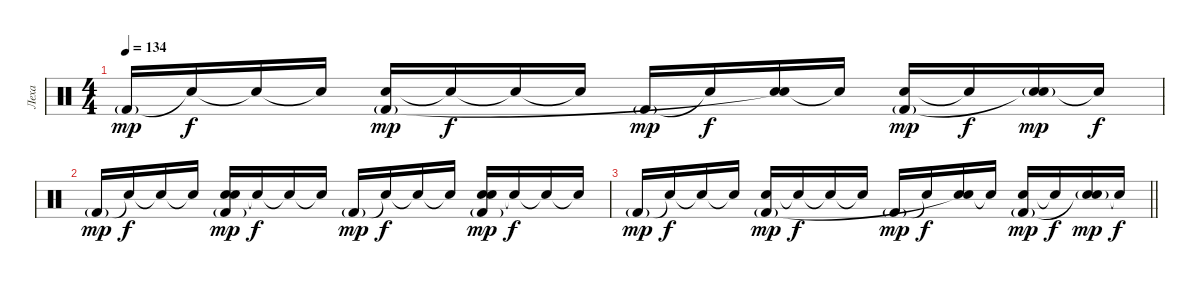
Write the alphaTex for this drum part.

\track ("Леха" "Леха") {instrument percussion}
\staff {score}
\articulation defaults
\ts (4 4)
\tempo 134
\clef neutral
\ks c "Kick (hit) 2"{g}.16{dy mp} "Snare (hit)"{t}.16{dy f} "Snare (hit)"{t}.16 "Snare (hit)"{t}.16
("Hand Clap (hit)" "Kick (hit) 2"{g}).16{dy mp} "Snare (hit)"{t}.16{dy f} "Snare (hit)"{t}.16 "Snare (hit)"{t}.16 "Kick (hit) 2"{g}.16{dy mp} "Snare (hit)"{t}.16{dy f} ("Hand Clap (hit)" "Snare (hit)"{t}).16 "Snare (hit)"{t}.16 ("Hand Clap (hit)" "Kick (hit) 2"{g}).16{dy mp} "Snare (hit)"{t}.16{dy f} ("Hand Clap (hit)"{g} "Snare (hit)"{t}).16{dy mp} "Snare (hit)"{t}.16{dy f} |
"Kick (hit) 2"{g}.16{dy mp} "Snare (hit)"{t}.16{dy f} "Snare (hit)"{t}.16 "Snare (hit)"{t}.16 ("Hand Clap (hit)" "Hand Clap (hit)" "Kick (hit) 2"{g}).16{dy mp} "Snare (hit)"{t}.16{dy f} "Snare (hit)"{t}.16 "Snare (hit)"{t}.16 "Kick (hit) 2"{g}.16{dy mp} "Snare (hit)"{t}.16{dy f} "Snare (hit)"{t}.16 "Snare (hit)"{t}.16 ("Hand Clap (hit)" "Hand Clap (hit)" "Kick (hit) 2"{g}).16{dy mp} "Snare (hit)"{t}.16{dy f} "Snare (hit)"{t}.16 "Snare (hit)"{t}.16 |
\barLineRight lightlight "Kick (hit) 2"{g}.16{dy mp} "Snare (hit)"{t}.16{dy f} "Snare (hit)"{t}.16 "Snare (hit)"{t}.16
("Hand Clap (hit)" "Kick (hit) 2"{g}).16{dy mp} "Snare (hit)"{t}.16{dy f} "Snare (hit)"{t}.16 "Snare (hit)"{t}.16 "Kick (hit) 2"{g}.16{dy mp} "Snare (hit)"{t}.16{dy f} ("Hand Clap (hit)" "Snare (hit)"{t}).16 "Snare (hit)"{t}.16 ("Hand Clap (hit)" "Kick (hit) 2"{g}).16{dy mp} "Snare (hit)"{t}.16{dy f} ("Hand Clap (hit)"{g} "Snare (hit)"{t}).16{dy mp} "Snare (hit)"{t}.16{dy f}
